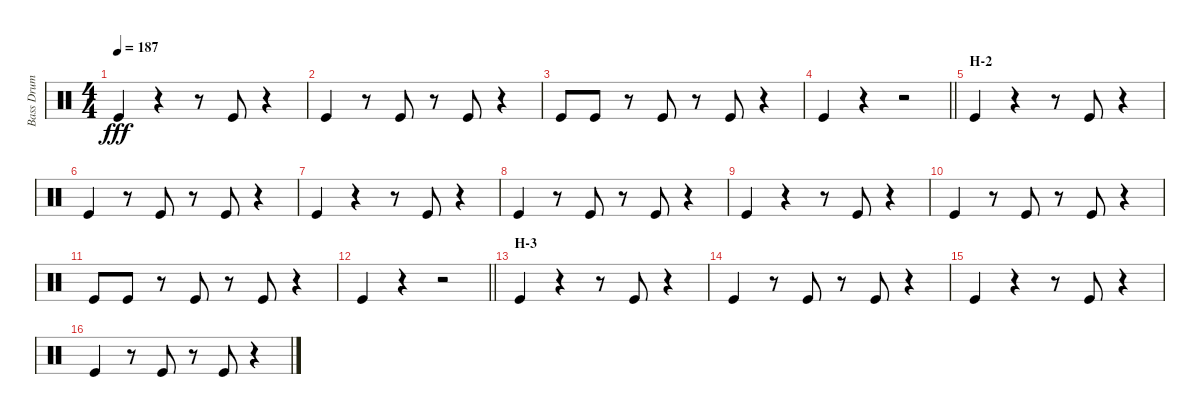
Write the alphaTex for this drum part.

\track ("Bass Drum" "Bass Drum") {instrument percussion}
\staff {score}
\articulation defaults
\ts (4 4)
\tempo 187
\clef neutral
\ks c "Kick (hit)".4{dy fff}
r.4 r.8 "Kick (hit)".8 r.4 |
"Kick (hit)".4 r.8 "Kick (hit)".8 r.8 "Kick (hit)".8 r.4 |
"Kick (hit)".8 "Kick (hit)".8 r.8 "Kick (hit)".8 r.8 "Kick (hit)".8 r.4 |
\barLineRight lightlight "Kick (hit)".4
r.4 r.2 |
\section ("" "H-2")
"Kick (hit)".4 r.4 r.8 "Kick (hit)".8 r.4 |
"Kick (hit)".4 r.8 "Kick (hit)".8 r.8 "Kick (hit)".8 r.4 |
"Kick (hit)".4 r.4 r.8 "Kick (hit)".8 r.4 |
"Kick (hit)".4 r.8 "Kick (hit)".8 r.8 "Kick (hit)".8 r.4 |
"Kick (hit)".4 r.4 r.8 "Kick (hit)".8 r.4 |
"Kick (hit)".4 r.8 "Kick (hit)".8 r.8 "Kick (hit)".8 r.4 |
"Kick (hit)".8 "Kick (hit)".8 r.8 "Kick (hit)".8 r.8 "Kick (hit)".8 r.4 |
\barLineRight lightlight "Kick (hit)".4
r.4 r.2 |
\section ("" "H-3")
"Kick (hit)".4 r.4 r.8 "Kick (hit)".8 r.4 |
"Kick (hit)".4 r.8 "Kick (hit)".8 r.8 "Kick (hit)".8 r.4 |
"Kick (hit)".4 r.4 r.8 "Kick (hit)".8 r.4 |
"Kick (hit)".4 r.8 "Kick (hit)".8 r.8 "Kick (hit)".8 r.4
